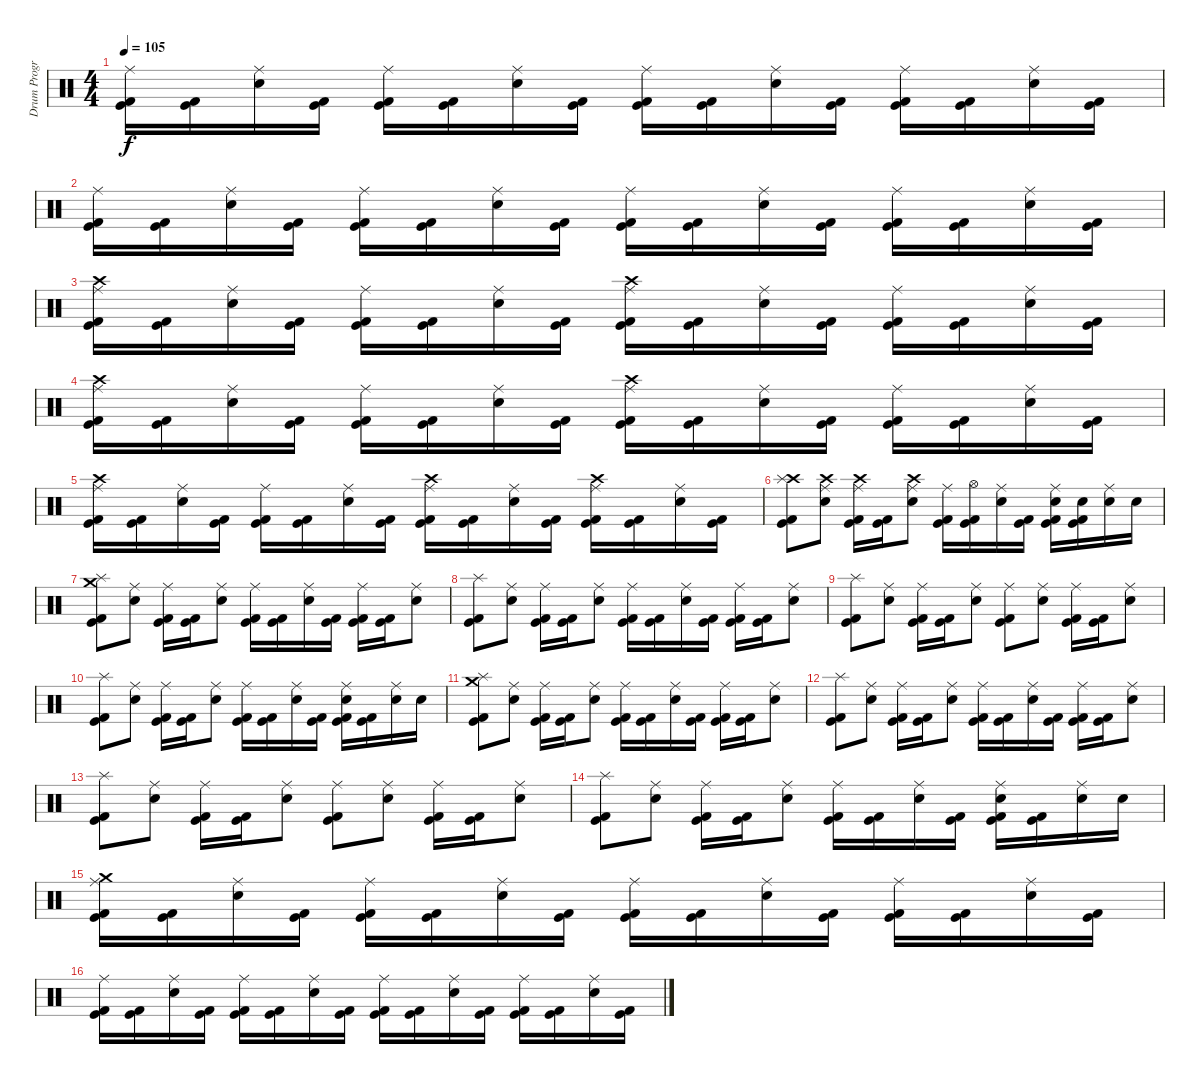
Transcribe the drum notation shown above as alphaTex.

\track ("Drum Program - BG" "Drum Progr") {instrument percussion}
\staff {score}
\articulation defaults
\ts (4 4)
\tempo 105
\clef neutral
\ks c
("Kick (hit)" "Kick (hit) 2" "Ride (middle)").16{dy f} ("Kick (hit)" "Kick (hit) 2").16 ("Snare (hit) 2" "Ride (middle)").16 ("Kick (hit)" "Kick (hit) 2").16 ("Kick (hit)" "Kick (hit) 2" "Ride (middle)").16 ("Kick (hit)" "Kick (hit) 2").16 ("Snare (hit) 2" "Ride (middle)").16 ("Kick (hit)" "Kick (hit) 2").16 ("Kick (hit)" "Kick (hit) 2" "Ride (middle)").16 ("Kick (hit)" "Kick (hit) 2").16 ("Snare (hit) 2" "Ride (middle)").16 ("Kick (hit)" "Kick (hit) 2").16 ("Kick (hit)" "Kick (hit) 2" "Ride (middle)").16 ("Kick (hit)" "Kick (hit) 2").16 ("Snare (hit) 2" "Ride (middle)").16 ("Kick (hit)" "Kick (hit) 2").16 |
("Kick (hit)" "Kick (hit) 2" "Ride (middle)").16 ("Kick (hit)" "Kick (hit) 2").16 ("Snare (hit) 2" "Ride (middle)").16 ("Kick (hit)" "Kick (hit) 2").16 ("Kick (hit)" "Kick (hit) 2" "Ride (middle)").16 ("Kick (hit)" "Kick (hit) 2").16 ("Snare (hit) 2" "Ride (middle)").16 ("Kick (hit)" "Kick (hit) 2").16 ("Kick (hit)" "Kick (hit) 2" "Ride (middle)").16 ("Kick (hit)" "Kick (hit) 2").16 ("Snare (hit) 2" "Ride (middle)").16 ("Kick (hit)" "Kick (hit) 2").16 ("Kick (hit)" "Kick (hit) 2" "Ride (middle)").16 ("Kick (hit)" "Kick (hit) 2").16 ("Snare (hit) 2" "Ride (middle)").16 ("Kick (hit)" "Kick (hit) 2").16 |
("Kick (hit)" "Kick (hit) 2" "Crash high (hit)" "Ride (middle)").16 ("Kick (hit)" "Kick (hit) 2").16 ("Snare (hit) 2" "Ride (middle)").16 ("Kick (hit)" "Kick (hit) 2").16 ("Kick (hit)" "Kick (hit) 2" "Ride (middle)").16 ("Kick (hit)" "Kick (hit) 2").16 ("Snare (hit) 2" "Ride (middle)").16 ("Kick (hit)" "Kick (hit) 2").16 ("Kick (hit)" "Kick (hit) 2" "Crash high (hit)" "Ride (middle)").16 ("Kick (hit)" "Kick (hit) 2").16 ("Snare (hit) 2" "Ride (middle)").16 ("Kick (hit)" "Kick (hit) 2").16 ("Kick (hit)" "Kick (hit) 2" "Ride (middle)").16 ("Kick (hit)" "Kick (hit) 2").16 ("Snare (hit) 2" "Ride (middle)").16 ("Kick (hit)" "Kick (hit) 2").16 |
("Kick (hit)" "Kick (hit) 2" "Crash high (hit)" "Ride (middle)").16 ("Kick (hit)" "Kick (hit) 2").16 ("Snare (hit) 2" "Ride (middle)").16 ("Kick (hit)" "Kick (hit) 2").16 ("Kick (hit)" "Kick (hit) 2" "Ride (middle)").16 ("Kick (hit)" "Kick (hit) 2").16 ("Snare (hit) 2" "Ride (middle)").16 ("Kick (hit)" "Kick (hit) 2").16 ("Kick (hit)" "Kick (hit) 2" "Crash high (hit)" "Ride (middle)").16 ("Kick (hit)" "Kick (hit) 2").16 ("Snare (hit) 2" "Ride (middle)").16 ("Kick (hit)" "Kick (hit) 2").16 ("Kick (hit)" "Kick (hit) 2" "Ride (middle)").16 ("Kick (hit)" "Kick (hit) 2").16 ("Snare (hit) 2" "Ride (middle)").16 ("Kick (hit)" "Kick (hit) 2").16 |
("Kick (hit)" "Kick (hit) 2" "Crash high (hit)" "Ride (middle)").16 ("Kick (hit)" "Kick (hit) 2").16 ("Snare (hit) 2" "Ride (middle)").16 ("Kick (hit)" "Kick (hit) 2").16 ("Kick (hit)" "Kick (hit) 2" "Ride (middle)").16 ("Kick (hit)" "Kick (hit) 2").16 ("Snare (hit) 2" "Ride (middle)").16 ("Kick (hit)" "Kick (hit) 2").16 ("Kick (hit)" "Kick (hit) 2" "Crash high (hit)" "Ride (middle)").16 ("Kick (hit)" "Kick (hit) 2").16 ("Snare (hit) 2" "Ride (middle)").16 ("Kick (hit)" "Kick (hit) 2").16 ("Kick (hit)" "Kick (hit) 2" "Crash high (hit)" "Ride (middle)").16 ("Kick (hit)" "Kick (hit) 2").16 ("Snare (hit) 2" "Ride (middle)").16 ("Kick (hit)" "Kick (hit) 2").16 |
("Kick (hit)" "Kick (hit) 2" "Crash high (hit)" "Splash (hit)").8 ("Electric Snare (hit)" "Ride (middle)" "Crash high (hit)").8 ("Kick (hit)" "Kick (hit) 2" "Crash high (hit)" "Ride (middle)").16 ("Kick (hit)" "Kick (hit) 2").16 ("Electric Snare (hit)" "Ride (middle)" "Crash high (hit)").8 ("Kick (hit)" "Kick (hit) 2" "Ride (middle)").16 ("Kick (hit)" "Kick (hit) 2" "Hi-Hat (open)").16 ("Electric Snare (hit)" "Ride (middle)").16 ("Kick (hit)" "Kick (hit) 2").16 ("Kick (hit)" "Kick (hit) 2" "Electric Snare (hit)" "Ride (middle)").16 ("Kick (hit)" "Kick (hit) 2" "Electric Snare (hit)").16 ("Electric Snare (hit)" "Ride (middle)").16 "Electric Snare (hit)".16 |
("Kick (hit)" "Kick (hit) 2" "Splash (hit)" "Crash medium (hit)").8 ("Snare (hit) 2" "Ride (middle)").8 ("Kick (hit)" "Kick (hit) 2" "Ride (middle)").16 ("Kick (hit)" "Kick (hit) 2").16 ("Snare (hit) 2" "Ride (middle)").8 ("Kick (hit)" "Kick (hit) 2" "Ride (middle)").16 ("Kick (hit)" "Kick (hit) 2").16 ("Snare (hit) 2" "Ride (middle)").16 ("Kick (hit)" "Kick (hit) 2").16 ("Kick (hit)" "Kick (hit) 2" "Ride (middle)").16 ("Kick (hit)" "Kick (hit) 2").16 ("Snare (hit) 2" "Ride (middle)").8 |
("Kick (hit)" "Kick (hit) 2" "Splash (hit)").8 ("Snare (hit) 2" "Ride (middle)").8 ("Kick (hit)" "Kick (hit) 2" "Ride (middle)").16 ("Kick (hit)" "Kick (hit) 2").16 ("Snare (hit) 2" "Ride (middle)").8 ("Kick (hit)" "Kick (hit) 2" "Ride (middle)").16 ("Kick (hit)" "Kick (hit) 2").16 ("Snare (hit) 2" "Ride (middle)").16 ("Kick (hit)" "Kick (hit) 2").16 ("Kick (hit)" "Kick (hit) 2" "Ride (middle)").16 ("Kick (hit)" "Kick (hit) 2").16 ("Snare (hit) 2" "Ride (middle)").8 |
("Kick (hit)" "Kick (hit) 2" "Splash (hit)").8 ("Snare (hit) 2" "Ride (middle)").8 ("Kick (hit)" "Kick (hit) 2" "Ride (middle)").16 ("Kick (hit)" "Kick (hit) 2").16 ("Snare (hit) 2" "Ride (middle)").8 ("Kick (hit)" "Kick (hit) 2" "Ride (middle)").8 ("Snare (hit) 2" "Ride (middle)").8 ("Kick (hit)" "Kick (hit) 2" "Ride (middle)").16 ("Kick (hit)" "Kick (hit) 2").16 ("Snare (hit) 2" "Ride (middle)").8 |
("Kick (hit)" "Kick (hit) 2" "Splash (hit)").8 ("Snare (hit) 2" "Ride (middle)").8 ("Kick (hit)" "Kick (hit) 2" "Ride (middle)").16 ("Kick (hit)" "Kick (hit) 2").16 ("Snare (hit) 2" "Ride (middle)").8 ("Kick (hit)" "Kick (hit) 2" "Ride (middle)").16 ("Kick (hit)" "Kick (hit) 2").16 ("Electric Snare (hit)" "Ride (middle)").16 ("Kick (hit)" "Kick (hit) 2").16 ("Kick (hit)" "Kick (hit) 2" "Electric Snare (hit)" "Ride (middle)").16 ("Kick (hit)" "Kick (hit) 2").16 ("Electric Snare (hit)" "Ride (middle)").16 "Electric Snare (hit)".16 |
("Kick (hit)" "Kick (hit) 2" "Splash (hit)" "Crash medium (hit)").8 ("Snare (hit) 2" "Ride (middle)").8 ("Kick (hit)" "Kick (hit) 2" "Ride (middle)").16 ("Kick (hit)" "Kick (hit) 2").16 ("Snare (hit) 2" "Ride (middle)").8 ("Kick (hit)" "Kick (hit) 2" "Ride (middle)").16 ("Kick (hit)" "Kick (hit) 2").16 ("Snare (hit) 2" "Ride (middle)").16 ("Kick (hit)" "Kick (hit) 2").16 ("Kick (hit)" "Kick (hit) 2" "Ride (middle)").16 ("Kick (hit)" "Kick (hit) 2").16 ("Snare (hit) 2" "Ride (middle)").8 |
("Kick (hit)" "Kick (hit) 2" "Splash (hit)").8 ("Snare (hit) 2" "Ride (middle)").8 ("Kick (hit)" "Kick (hit) 2" "Ride (middle)").16 ("Kick (hit)" "Kick (hit) 2").16 ("Snare (hit) 2" "Ride (middle)").8 ("Kick (hit)" "Kick (hit) 2" "Ride (middle)").16 ("Kick (hit)" "Kick (hit) 2").16 ("Snare (hit) 2" "Ride (middle)").16 ("Kick (hit)" "Kick (hit) 2").16 ("Kick (hit)" "Kick (hit) 2" "Ride (middle)").16 ("Kick (hit)" "Kick (hit) 2").16 ("Snare (hit) 2" "Ride (middle)").8 |
("Kick (hit)" "Kick (hit) 2" "Splash (hit)").8 ("Snare (hit) 2" "Ride (middle)").8 ("Kick (hit)" "Kick (hit) 2" "Ride (middle)").16 ("Kick (hit)" "Kick (hit) 2").16 ("Snare (hit) 2" "Ride (middle)").8 ("Kick (hit)" "Kick (hit) 2" "Ride (middle)").8 ("Snare (hit) 2" "Ride (middle)").8 ("Kick (hit)" "Kick (hit) 2" "Ride (middle)").16 ("Kick (hit)" "Kick (hit) 2").16 ("Snare (hit) 2" "Ride (middle)").8 |
("Kick (hit)" "Kick (hit) 2" "Splash (hit)").8 ("Snare (hit) 2" "Ride (middle)").8 ("Kick (hit)" "Kick (hit) 2" "Ride (middle)").16 ("Kick (hit)" "Kick (hit) 2").16 ("Snare (hit) 2" "Ride (middle)").8 ("Kick (hit)" "Kick (hit) 2" "Ride (middle)").16 ("Kick (hit)" "Kick (hit) 2").16 ("Electric Snare (hit)" "Ride (middle)").16 ("Kick (hit)" "Kick (hit) 2").16 ("Kick (hit)" "Kick (hit) 2" "Electric Snare (hit)" "Ride (middle)").16 ("Kick (hit)" "Kick (hit) 2").16 ("Electric Snare (hit)" "Ride (middle)").16 "Electric Snare (hit)".16 |
("Kick (hit)" "Kick (hit) 2" "Crash medium (hit)" "Ride (middle)").16 ("Kick (hit)" "Kick (hit) 2").16 ("Snare (hit) 2" "Ride (middle)").16 ("Kick (hit)" "Kick (hit) 2").16 ("Kick (hit)" "Kick (hit) 2" "Ride (middle)").16 ("Kick (hit)" "Kick (hit) 2").16 ("Snare (hit) 2" "Ride (middle)").16 ("Kick (hit)" "Kick (hit) 2").16 ("Kick (hit)" "Kick (hit) 2" "Ride (middle)").16 ("Kick (hit)" "Kick (hit) 2").16 ("Snare (hit) 2" "Ride (middle)").16 ("Kick (hit)" "Kick (hit) 2").16 ("Kick (hit)" "Kick (hit) 2" "Ride (middle)").16 ("Kick (hit)" "Kick (hit) 2").16 ("Snare (hit) 2" "Ride (middle)").16 ("Kick (hit)" "Kick (hit) 2").16 |
("Kick (hit)" "Kick (hit) 2" "Ride (middle)").16 ("Kick (hit)" "Kick (hit) 2").16 ("Snare (hit) 2" "Ride (middle)").16 ("Kick (hit)" "Kick (hit) 2").16 ("Kick (hit)" "Kick (hit) 2" "Ride (middle)").16 ("Kick (hit)" "Kick (hit) 2").16 ("Snare (hit) 2" "Ride (middle)").16 ("Kick (hit)" "Kick (hit) 2").16 ("Kick (hit)" "Kick (hit) 2" "Ride (middle)").16 ("Kick (hit)" "Kick (hit) 2").16 ("Snare (hit) 2" "Ride (middle)").16 ("Kick (hit)" "Kick (hit) 2").16 ("Kick (hit)" "Kick (hit) 2" "Ride (middle)").16 ("Kick (hit)" "Kick (hit) 2").16 ("Snare (hit) 2" "Ride (middle)").16 ("Kick (hit)" "Kick (hit) 2").16
